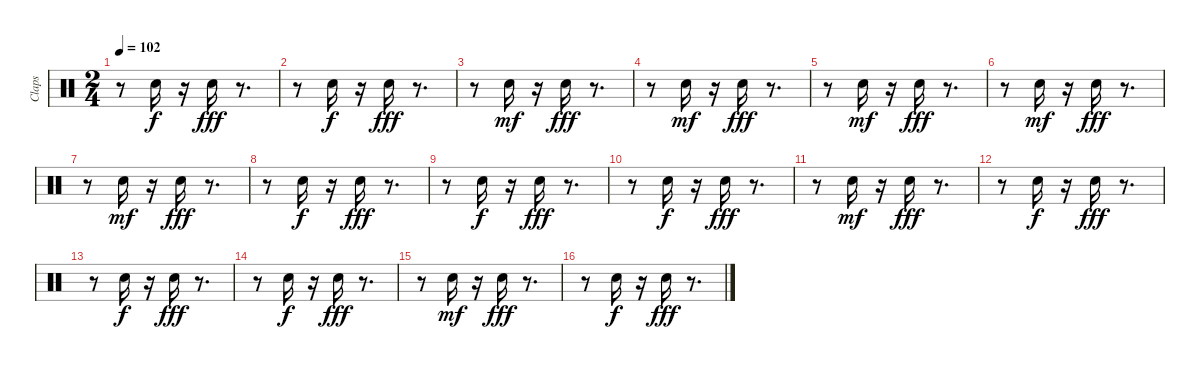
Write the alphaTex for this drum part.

\track ("Claps" "Claps") {instrument percussion}
\staff {score}
\articulation defaults
\ts (2 4)
\tempo 102
\clef neutral
\ks c
r.8{dy fff} "Hand Clap (hit)".16{dy f} r.16 "Hand Clap (hit)".16{dy fff} r.8{d} |
r.8 "Hand Clap (hit)".16{dy f} r.16 "Hand Clap (hit)".16{dy fff} r.8{d} |
r.8 "Hand Clap (hit)".16{dy mf} r.16 "Hand Clap (hit)".16{dy fff} r.8{d} |
r.8 "Hand Clap (hit)".16{dy mf} r.16 "Hand Clap (hit)".16{dy fff} r.8{d} |
r.8 "Hand Clap (hit)".16{dy mf} r.16 "Hand Clap (hit)".16{dy fff} r.8{d} |
r.8 "Hand Clap (hit)".16{dy mf} r.16 "Hand Clap (hit)".16{dy fff} r.8{d} |
r.8 "Hand Clap (hit)".16{dy mf} r.16 "Hand Clap (hit)".16{dy fff} r.8{d} |
r.8 "Hand Clap (hit)".16{dy f} r.16 "Hand Clap (hit)".16{dy fff} r.8{d} |
r.8 "Hand Clap (hit)".16{dy f} r.16 "Hand Clap (hit)".16{dy fff} r.8{d} |
r.8 "Hand Clap (hit)".16{dy f} r.16 "Hand Clap (hit)".16{dy fff} r.8{d} |
r.8 "Hand Clap (hit)".16{dy mf} r.16 "Hand Clap (hit)".16{dy fff} r.8{d} |
r.8 "Hand Clap (hit)".16{dy f} r.16 "Hand Clap (hit)".16{dy fff} r.8{d} |
r.8 "Hand Clap (hit)".16{dy f} r.16 "Hand Clap (hit)".16{dy fff} r.8{d} |
r.8 "Hand Clap (hit)".16{dy f} r.16 "Hand Clap (hit)".16{dy fff} r.8{d} |
r.8 "Hand Clap (hit)".16{dy mf} r.16 "Hand Clap (hit)".16{dy fff} r.8{d} |
r.8 "Hand Clap (hit)".16{dy f} r.16 "Hand Clap (hit)".16{dy fff} r.8{d}
